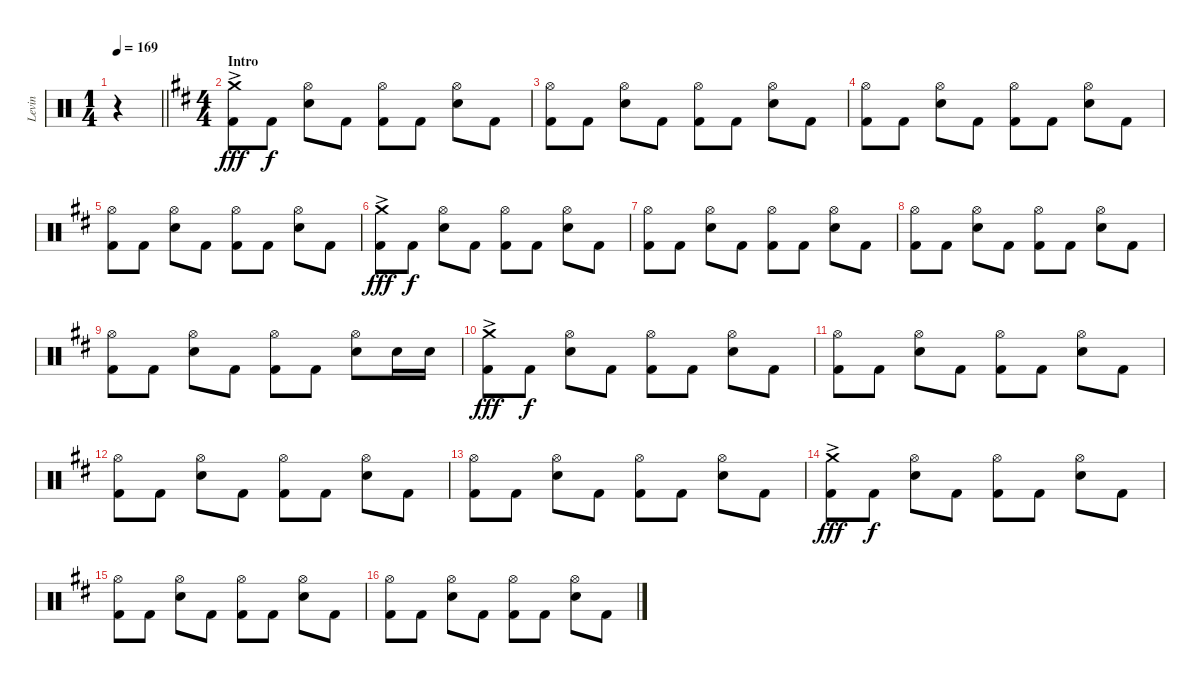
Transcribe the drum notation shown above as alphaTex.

\track ("Levin" "Levin") {instrument percussion}
\staff {score}
\articulation defaults
\ts (1 4)
\tempo 169
\clef neutral
\barLineRight lightlight
\ks c
r.4{dy fff} |
\ts (4 4)
\section ("" "Intro")
\ks d
("Crash medium (hit)"{ac} "Kick (hit) 2").8 "Kick (hit) 2".8{dy f} ("Hi-Hat (open)" "Electric Snare (hit)").8 "Kick (hit) 2".8 ("Hi-Hat (open)" "Kick (hit) 2").8 "Kick (hit) 2".8 ("Hi-Hat (open)" "Electric Snare (hit)").8 "Kick (hit) 2".8 |
("Hi-Hat (open)" "Kick (hit) 2").8 "Kick (hit) 2".8 ("Hi-Hat (open)" "Electric Snare (hit)").8 "Kick (hit) 2".8 ("Hi-Hat (open)" "Kick (hit) 2").8 "Kick (hit) 2".8 ("Hi-Hat (open)" "Electric Snare (hit)").8 "Kick (hit) 2".8 |
("Hi-Hat (open)" "Kick (hit) 2").8 "Kick (hit) 2".8 ("Hi-Hat (open)" "Electric Snare (hit)").8 "Kick (hit) 2".8 ("Hi-Hat (open)" "Kick (hit) 2").8 "Kick (hit) 2".8 ("Hi-Hat (open)" "Electric Snare (hit)").8 "Kick (hit) 2".8 |
("Hi-Hat (open)" "Kick (hit) 2").8 "Kick (hit) 2".8 ("Hi-Hat (open)" "Electric Snare (hit)").8 "Kick (hit) 2".8 ("Hi-Hat (open)" "Kick (hit) 2").8 "Kick (hit) 2".8 ("Hi-Hat (open)" "Electric Snare (hit)").8 "Kick (hit) 2".8 |
("Crash medium (hit)"{ac} "Kick (hit) 2").8{dy fff} "Kick (hit) 2".8{dy f} ("Hi-Hat (open)" "Electric Snare (hit)").8 "Kick (hit) 2".8 ("Hi-Hat (open)" "Kick (hit) 2").8 "Kick (hit) 2".8 ("Hi-Hat (open)" "Electric Snare (hit)").8 "Kick (hit) 2".8 |
("Hi-Hat (open)" "Kick (hit) 2").8 "Kick (hit) 2".8 ("Hi-Hat (open)" "Electric Snare (hit)").8 "Kick (hit) 2".8 ("Hi-Hat (open)" "Kick (hit) 2").8 "Kick (hit) 2".8 ("Hi-Hat (open)" "Electric Snare (hit)").8 "Kick (hit) 2".8 |
("Hi-Hat (open)" "Kick (hit) 2").8 "Kick (hit) 2".8 ("Hi-Hat (open)" "Electric Snare (hit)").8 "Kick (hit) 2".8 ("Hi-Hat (open)" "Kick (hit) 2").8 "Kick (hit) 2".8 ("Hi-Hat (open)" "Electric Snare (hit)").8 "Kick (hit) 2".8 |
("Hi-Hat (open)" "Kick (hit) 2").8 "Kick (hit) 2".8 ("Hi-Hat (open)" "Electric Snare (hit)").8 "Kick (hit) 2".8 ("Hi-Hat (open)" "Kick (hit) 2").8 "Kick (hit) 2".8 ("Hi-Hat (open)" "Electric Snare (hit)").8 "Electric Snare (hit)".16 "Electric Snare (hit)".16 |
("Crash medium (hit)"{ac} "Kick (hit) 2").8{dy fff} "Kick (hit) 2".8{dy f} ("Hi-Hat (open)" "Electric Snare (hit)").8 "Kick (hit) 2".8 ("Hi-Hat (open)" "Kick (hit) 2").8 "Kick (hit) 2".8 ("Hi-Hat (open)" "Electric Snare (hit)").8 "Kick (hit) 2".8 |
("Hi-Hat (open)" "Kick (hit) 2").8 "Kick (hit) 2".8 ("Hi-Hat (open)" "Electric Snare (hit)").8 "Kick (hit) 2".8 ("Hi-Hat (open)" "Kick (hit) 2").8 "Kick (hit) 2".8 ("Hi-Hat (open)" "Electric Snare (hit)").8 "Kick (hit) 2".8 |
("Hi-Hat (open)" "Kick (hit) 2").8 "Kick (hit) 2".8 ("Hi-Hat (open)" "Electric Snare (hit)").8 "Kick (hit) 2".8 ("Hi-Hat (open)" "Kick (hit) 2").8 "Kick (hit) 2".8 ("Hi-Hat (open)" "Electric Snare (hit)").8 "Kick (hit) 2".8 |
("Hi-Hat (open)" "Kick (hit) 2").8 "Kick (hit) 2".8 ("Hi-Hat (open)" "Electric Snare (hit)").8 "Kick (hit) 2".8 ("Hi-Hat (open)" "Kick (hit) 2").8 "Kick (hit) 2".8 ("Hi-Hat (open)" "Electric Snare (hit)").8 "Kick (hit) 2".8 |
("Crash medium (hit)"{ac} "Kick (hit) 2").8{dy fff} "Kick (hit) 2".8{dy f} ("Hi-Hat (open)" "Electric Snare (hit)").8 "Kick (hit) 2".8 ("Hi-Hat (open)" "Kick (hit) 2").8 "Kick (hit) 2".8 ("Hi-Hat (open)" "Electric Snare (hit)").8 "Kick (hit) 2".8 |
("Hi-Hat (open)" "Kick (hit) 2").8 "Kick (hit) 2".8 ("Hi-Hat (open)" "Electric Snare (hit)").8 "Kick (hit) 2".8 ("Hi-Hat (open)" "Kick (hit) 2").8 "Kick (hit) 2".8 ("Hi-Hat (open)" "Electric Snare (hit)").8 "Kick (hit) 2".8 |
("Hi-Hat (open)" "Kick (hit) 2").8 "Kick (hit) 2".8 ("Hi-Hat (open)" "Electric Snare (hit)").8 "Kick (hit) 2".8 ("Hi-Hat (open)" "Kick (hit) 2").8 "Kick (hit) 2".8 ("Hi-Hat (open)" "Electric Snare (hit)").8 "Kick (hit) 2".8
